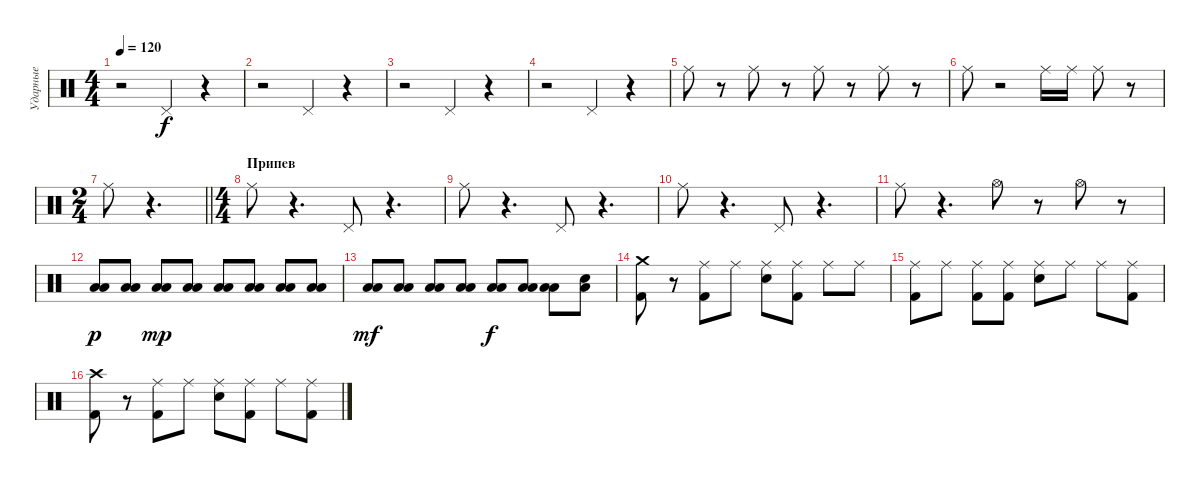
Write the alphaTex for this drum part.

\track ("Ударные" "Ударные") {instrument percussion}
\staff {score}
\articulation defaults
\ts (4 4)
\tempo 120
\clef neutral
\ks c
r.2{dy f} "Pedal Hi-Hat (hit)".4 r.4 |
r.2 "Pedal Hi-Hat (hit)".4 r.4 |
r.2 "Pedal Hi-Hat (hit)".4 r.4 |
r.2 "Pedal Hi-Hat (hit)".4 r.4 |
"Ride (middle)".8 r.8 "Ride (middle)".8 r.8 "Ride (middle)".8 r.8 "Ride (middle)".8 r.8 |
"Ride (middle)".8 r.2 "Ride (middle)".16 "Ride (middle)".16 "Ride (middle)".8 r.8 |
\ts (2 4)
\barLineRight lightlight "Ride (middle)".8
r.4{d} |
\ts (4 4)
\section ("" "Припев")
"Ride (middle)".8 r.4{d} "Pedal Hi-Hat (hit)".8 r.4{d} |
"Ride (middle)".8 r.4{d} "Pedal Hi-Hat (hit)".8 r.4{d} |
"Ride (middle)".8 r.4{d} "Pedal Hi-Hat (hit)".8 r.4{d} |
"Ride (middle)".8 r.4{d} "Hi-Hat (open)".8 r.8 "Hi-Hat (open)".8 r.8 |
("Low Tom (hit)" "Low Floor Tom (hit)").8{dy p} ("Low Floor Tom (hit)" "Low Tom (hit)").8 ("Low Tom (hit)" "Low Floor Tom (hit)").8{dy mp} ("Low Floor Tom (hit)" "Low Tom (hit)").8 ("Low Floor Tom (hit)" "Low Tom (hit)").8 ("Low Floor Tom (hit)" "Low Tom (hit)").8 ("Low Tom (hit)" "Low Floor Tom (hit)").8 ("Low Floor Tom (hit)" "Low Tom (hit)").8 |
("Low Tom (hit)" "Low Floor Tom (hit)").8{dy mf} ("Low Tom (hit)" "Low Floor Tom (hit)").8 ("Low Floor Tom (hit)" "Low Tom (hit)").8 ("Low Tom (hit)" "Low Floor Tom (hit)").8 ("Low Tom (hit)" "Low Floor Tom (hit)").8{dy f} ("Low Tom (hit)" "Low Floor Tom (hit)").8 ("Low Floor Tom (hit)" "Low Tom (hit)").8 ("Snare (hit) 2" "Low Floor Tom (hit)").8 |
("Crash medium (hit)" "Kick (hit) 2").8 r.8 ("Ride (middle)" "Kick (hit) 2").8 "Ride (middle)".8 ("Snare (hit) 2" "Ride (middle)").8 ("Kick (hit) 2" "Ride (middle)").8 "Ride (middle)".8 "Ride (middle)".8 |
("Ride (middle)" "Kick (hit) 2").8 "Ride (middle)".8 ("Ride (middle)" "Kick (hit) 2").8 ("Kick (hit) 2" "Ride (middle)").8 ("Ride (middle)" "Snare (hit) 2").8 "Ride (middle)".8 "Ride (middle)".8 ("Kick (hit) 2" "Ride (middle)").8 |
("Kick (hit) 2" "Crash high (hit)").8 r.8 ("Ride (middle)" "Kick (hit) 2").8 "Ride (middle)".8 ("Snare (hit) 2" "Ride (middle)").8 ("Kick (hit) 2" "Ride (middle)").8 "Ride (middle)".8 ("Kick (hit) 2" "Ride (middle)").8
